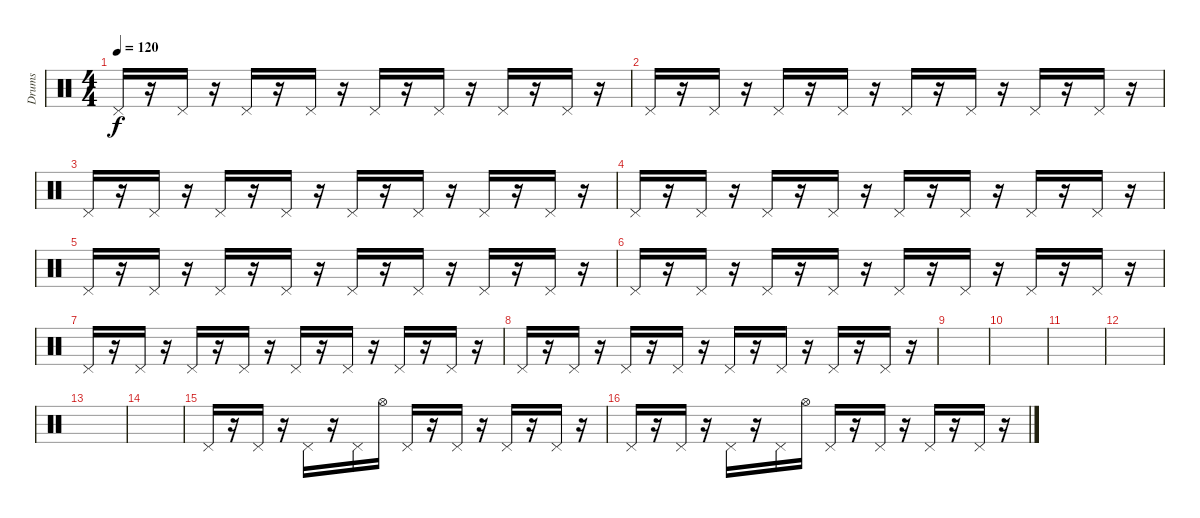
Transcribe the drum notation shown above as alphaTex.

\track ("Drums" "Drums") {instrument percussion}
\staff {score}
\articulation defaults
\ts (4 4)
\tempo 120
\clef neutral
\ks c "Pedal Hi-Hat (hit)".16{dy f}
r.16 "Pedal Hi-Hat (hit)".16 r.16 "Pedal Hi-Hat (hit)".16 r.16 "Pedal Hi-Hat (hit)".16 r.16 "Pedal Hi-Hat (hit)".16 r.16 "Pedal Hi-Hat (hit)".16 r.16 "Pedal Hi-Hat (hit)".16 r.16 "Pedal Hi-Hat (hit)".16 r.16 |
"Pedal Hi-Hat (hit)".16 r.16 "Pedal Hi-Hat (hit)".16 r.16 "Pedal Hi-Hat (hit)".16 r.16 "Pedal Hi-Hat (hit)".16 r.16 "Pedal Hi-Hat (hit)".16 r.16 "Pedal Hi-Hat (hit)".16 r.16 "Pedal Hi-Hat (hit)".16 r.16 "Pedal Hi-Hat (hit)".16 r.16 |
"Pedal Hi-Hat (hit)".16 r.16 "Pedal Hi-Hat (hit)".16 r.16 "Pedal Hi-Hat (hit)".16 r.16 "Pedal Hi-Hat (hit)".16 r.16 "Pedal Hi-Hat (hit)".16 r.16 "Pedal Hi-Hat (hit)".16 r.16 "Pedal Hi-Hat (hit)".16 r.16 "Pedal Hi-Hat (hit)".16 r.16 |
"Pedal Hi-Hat (hit)".16 r.16 "Pedal Hi-Hat (hit)".16 r.16 "Pedal Hi-Hat (hit)".16 r.16 "Pedal Hi-Hat (hit)".16 r.16 "Pedal Hi-Hat (hit)".16 r.16 "Pedal Hi-Hat (hit)".16 r.16 "Pedal Hi-Hat (hit)".16 r.16 "Pedal Hi-Hat (hit)".16 r.16 |
"Pedal Hi-Hat (hit)".16 r.16 "Pedal Hi-Hat (hit)".16 r.16 "Pedal Hi-Hat (hit)".16 r.16 "Pedal Hi-Hat (hit)".16 r.16 "Pedal Hi-Hat (hit)".16 r.16 "Pedal Hi-Hat (hit)".16 r.16 "Pedal Hi-Hat (hit)".16 r.16 "Pedal Hi-Hat (hit)".16 r.16 |
"Pedal Hi-Hat (hit)".16 r.16 "Pedal Hi-Hat (hit)".16 r.16 "Pedal Hi-Hat (hit)".16 r.16 "Pedal Hi-Hat (hit)".16 r.16 "Pedal Hi-Hat (hit)".16 r.16 "Pedal Hi-Hat (hit)".16 r.16 "Pedal Hi-Hat (hit)".16 r.16 "Pedal Hi-Hat (hit)".16 r.16 |
"Pedal Hi-Hat (hit)".16 r.16 "Pedal Hi-Hat (hit)".16 r.16 "Pedal Hi-Hat (hit)".16 r.16 "Pedal Hi-Hat (hit)".16 r.16 "Pedal Hi-Hat (hit)".16 r.16 "Pedal Hi-Hat (hit)".16 r.16 "Pedal Hi-Hat (hit)".16 r.16 "Pedal Hi-Hat (hit)".16 r.16 |
"Pedal Hi-Hat (hit)".16 r.16 "Pedal Hi-Hat (hit)".16 r.16 "Pedal Hi-Hat (hit)".16 r.16 "Pedal Hi-Hat (hit)".16 r.16 "Pedal Hi-Hat (hit)".16 r.16 "Pedal Hi-Hat (hit)".16 r.16 "Pedal Hi-Hat (hit)".16 r.16 "Pedal Hi-Hat (hit)".16 r.16 |
|
|
|
|
|
|
"Pedal Hi-Hat (hit)".16 r.16 "Pedal Hi-Hat (hit)".16 r.16 "Pedal Hi-Hat (hit)".16 r.16 "Pedal Hi-Hat (hit)".16 "Hi-Hat (open)".16 "Pedal Hi-Hat (hit)".16 r.16 "Pedal Hi-Hat (hit)".16 r.16 "Pedal Hi-Hat (hit)".16 r.16 "Pedal Hi-Hat (hit)".16 r.16 |
"Pedal Hi-Hat (hit)".16 r.16 "Pedal Hi-Hat (hit)".16 r.16 "Pedal Hi-Hat (hit)".16 r.16 "Pedal Hi-Hat (hit)".16 "Hi-Hat (open)".16 "Pedal Hi-Hat (hit)".16 r.16 "Pedal Hi-Hat (hit)".16 r.16 "Pedal Hi-Hat (hit)".16 r.16 "Pedal Hi-Hat (hit)".16 r.16
